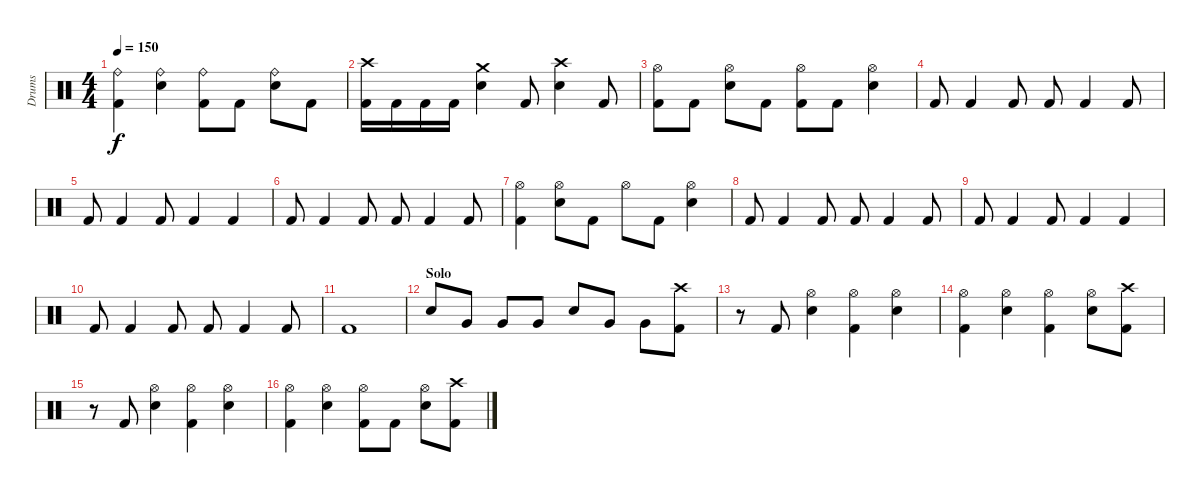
\track ("Drums" "Drums") {instrument percussion}
\staff {score}
\articulation defaults
\ts (4 4)
\tempo 150
\clef neutral
\ks c
("Kick (hit) 2" "Ride (bell)").4{dy f} ("Electric Snare (hit)" "Ride (bell)").4 ("Kick (hit) 2" "Ride (bell)").8 "Kick (hit) 2".8 ("Electric Snare (hit)" "Ride (bell)").8 "Kick (hit) 2".8 |
("Kick (hit) 2" "Crash high (hit)").16 "Kick (hit) 2".16 "Kick (hit) 2".16 "Kick (hit) 2".16 ("Electric Snare (hit)" "Crash medium (hit)").4 "Kick (hit) 2".8 ("Electric Snare (hit)" "Crash high (hit)").4 "Kick (hit) 2".8 |
("Kick (hit) 2" "Hi-Hat (open)").8 "Kick (hit) 2".8 ("Electric Snare (hit)" "Hi-Hat (open)").8 "Kick (hit) 2".8 ("Kick (hit) 2" "Hi-Hat (open)").8 "Kick (hit) 2".8 ("Electric Snare (hit)" "Hi-Hat (open)").4 |
"Kick (hit) 2".8 "Kick (hit) 2".4 "Kick (hit) 2".8 "Kick (hit) 2".8 "Kick (hit) 2".4 "Kick (hit) 2".8 |
"Kick (hit) 2".8 "Kick (hit) 2".4 "Kick (hit) 2".8 "Kick (hit) 2".4 "Kick (hit) 2".4 |
"Kick (hit) 2".8 "Kick (hit) 2".4 "Kick (hit) 2".8 "Kick (hit) 2".8 "Kick (hit) 2".4 "Kick (hit) 2".8 |
("Kick (hit) 2" "Hi-Hat (open)").4 ("Electric Snare (hit)" "Hi-Hat (open)").8 "Kick (hit) 2".8 "Hi-Hat (open)".8 "Kick (hit) 2".8 ("Electric Snare (hit)" "Hi-Hat (open)").4 |
"Kick (hit) 2".8 "Kick (hit) 2".4 "Kick (hit) 2".8 "Kick (hit) 2".8 "Kick (hit) 2".4 "Kick (hit) 2".8 |
"Kick (hit) 2".8 "Kick (hit) 2".4 "Kick (hit) 2".8 "Kick (hit) 2".4 "Kick (hit) 2".4 |
"Kick (hit) 2".8 "Kick (hit) 2".4 "Kick (hit) 2".8 "Kick (hit) 2".8 "Kick (hit) 2".4 "Kick (hit) 2".8 |
"Kick (hit) 2".1 |
\section ("" "Solo")
"Electric Snare (hit)".8 "Very Low Tom (hit)".8 "Very Low Tom (hit)".8 "Very Low Tom (hit)".8 "Electric Snare (hit)".8 "Very Low Tom (hit)".8 "Very Low Tom (hit)".8 ("Crash high (hit)" "Kick (hit) 2").8 |
r.8 "Kick (hit) 2".8 ("Hi-Hat (open)" "Electric Snare (hit)").4 ("Hi-Hat (open)" "Kick (hit) 2").4 ("Hi-Hat (open)" "Electric Snare (hit)").4 |
("Hi-Hat (open)" "Kick (hit) 2").4 ("Hi-Hat (open)" "Electric Snare (hit)").4 ("Hi-Hat (open)" "Kick (hit) 2").4 ("Hi-Hat (open)" "Electric Snare (hit)").8 ("Crash high (hit)" "Kick (hit) 2").8 |
r.8 "Kick (hit) 2".8 ("Hi-Hat (open)" "Electric Snare (hit)").4 ("Hi-Hat (open)" "Kick (hit) 2").4 ("Hi-Hat (open)" "Electric Snare (hit)").4 |
("Hi-Hat (open)" "Kick (hit) 2").4 ("Hi-Hat (open)" "Electric Snare (hit)").4 ("Hi-Hat (open)" "Kick (hit) 2").8 "Kick (hit) 2".8 ("Hi-Hat (open)" "Electric Snare (hit)").8 ("Crash high (hit)" "Kick (hit) 2").8
